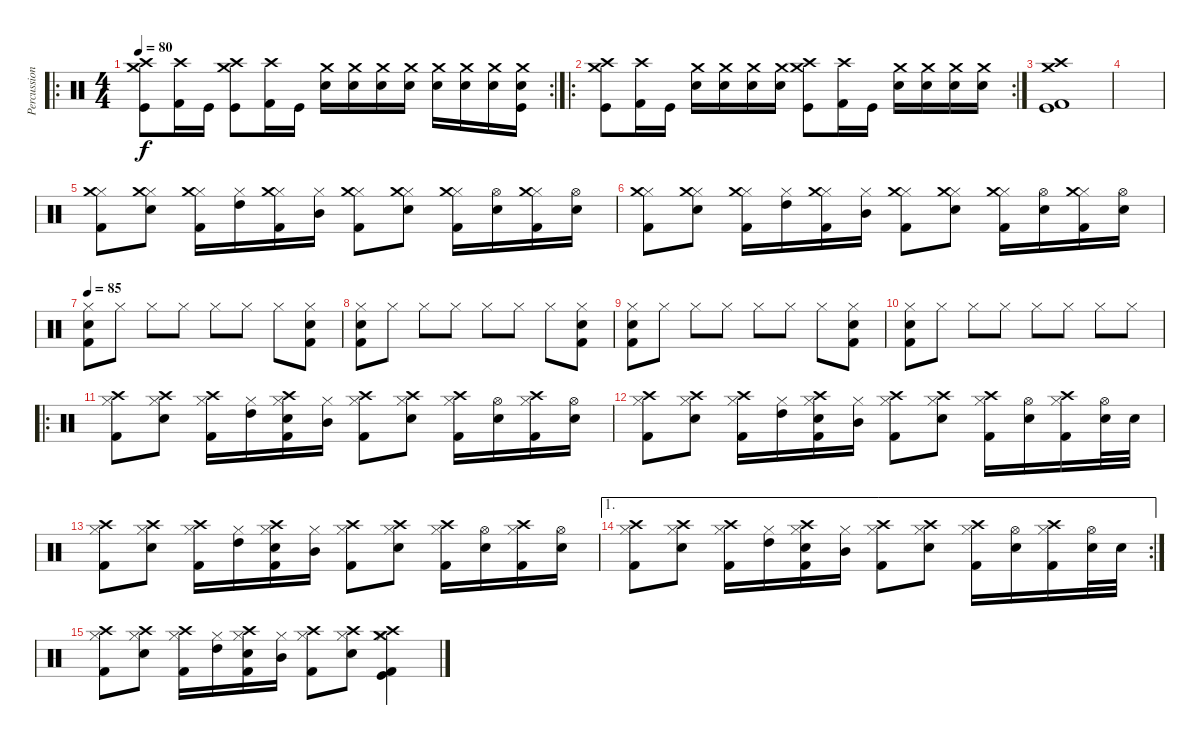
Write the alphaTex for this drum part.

\track ("Percussions" "Percussion") {instrument percussion}
\staff {score}
\articulation defaults
\ro
\rc 2
\ts (4 4)
\tempo 80
\clef neutral
\ks c
("Crash high (hit)" "Crash medium (hit)" "Kick (hit)").8{dy f} ("Crash high (hit)" "Kick (hit) 2").16 "Kick (hit)".16 ("Crash high (hit)" "Crash medium (hit)" "Kick (hit)").8 ("Crash high (hit)" "Kick (hit) 2").16 "Kick (hit)".16 ("Crash medium (hit)" "Electric Snare (hit)").16 ("Crash medium (hit)" "Electric Snare (hit)").16 ("Crash medium (hit)" "Electric Snare (hit)").16 ("Crash medium (hit)" "Electric Snare (hit)").16 ("Crash medium (hit)" "Electric Snare (hit)").16 ("Crash medium (hit)" "Electric Snare (hit)").16 ("Crash medium (hit)" "Electric Snare (hit)").16 ("Crash medium (hit)" "Electric Snare (hit)" "Kick (hit)").16 |
\ro
\rc 2
("Crash high (hit)" "Crash medium (hit)" "Kick (hit)").8 ("Crash high (hit)" "Kick (hit) 2").16 "Kick (hit)".16 ("Crash medium (hit)" "Electric Snare (hit)").16 ("Crash medium (hit)" "Electric Snare (hit)").16 ("Crash medium (hit)" "Electric Snare (hit)").16 ("Crash medium (hit)" "Electric Snare (hit)").16 ("Crash high (hit)" "Crash medium (hit)" "Kick (hit)").8 ("Crash high (hit)" "Kick (hit) 2").16 "Kick (hit)".16 ("Crash medium (hit)" "Electric Snare (hit)").16 ("Crash medium (hit)" "Electric Snare (hit)").16 ("Crash medium (hit)" "Electric Snare (hit)").16 ("Crash medium (hit)" "Electric Snare (hit)").16 |
("Crash high (hit)" "Crash medium (hit)" "Kick (hit) 2" "Kick (hit)").1 |
|
("Hi-Hat (closed)" "Kick (hit) 2" "Crash medium (hit)").8 ("Hi-Hat (closed)" "Electric Snare (hit)" "Crash medium (hit)").8 ("Hi-Hat (closed)" "Kick (hit) 2" "Crash medium (hit)").16 ("Hi-Hat (closed)" "High Tom (hit)").16 ("Hi-Hat (closed)" "Kick (hit) 2" "Crash medium (hit)").16 ("Hi-Hat (closed)" "Mid Tom (hit)").16 ("Hi-Hat (closed)" "Kick (hit) 2" "Crash medium (hit)").8 ("Hi-Hat (closed)" "Electric Snare (hit)" "Crash medium (hit)").8 ("Hi-Hat (closed)" "Kick (hit) 2" "Crash medium (hit)").16 ("Hi-Hat (open)" "Electric Snare (hit)").16 ("Hi-Hat (closed)" "Kick (hit) 2" "Crash medium (hit)").16 ("Hi-Hat (open)" "Electric Snare (hit)").16 |
("Hi-Hat (closed)" "Kick (hit) 2" "Crash medium (hit)").8 ("Hi-Hat (closed)" "Electric Snare (hit)" "Crash medium (hit)").8 ("Hi-Hat (closed)" "Kick (hit) 2" "Crash medium (hit)").16 ("Hi-Hat (closed)" "High Tom (hit)").16 ("Hi-Hat (closed)" "Kick (hit) 2" "Crash medium (hit)").16 ("Hi-Hat (closed)" "Mid Tom (hit)").16 ("Hi-Hat (closed)" "Kick (hit) 2" "Crash medium (hit)").8 ("Hi-Hat (closed)" "Electric Snare (hit)" "Crash medium (hit)").8 ("Hi-Hat (closed)" "Kick (hit) 2" "Crash medium (hit)").16 ("Hi-Hat (open)" "Electric Snare (hit)").16 ("Hi-Hat (closed)" "Kick (hit) 2" "Crash medium (hit)").16 ("Hi-Hat (open)" "Electric Snare (hit)").16 |
\tempo 85
("Hi-Hat (closed)" "Electric Snare (hit)" "Kick (hit) 2").8 "Hi-Hat (closed)".8 "Hi-Hat (closed)".8 "Hi-Hat (closed)".8 "Hi-Hat (closed)".8 "Hi-Hat (closed)".8 "Hi-Hat (closed)".8 ("Hi-Hat (closed)" "Electric Snare (hit)" "Kick (hit) 2").8 |
("Hi-Hat (closed)" "Electric Snare (hit)" "Kick (hit) 2").8 "Hi-Hat (closed)".8 "Hi-Hat (closed)".8 "Hi-Hat (closed)".8 "Hi-Hat (closed)".8 "Hi-Hat (closed)".8 "Hi-Hat (closed)".8 ("Hi-Hat (closed)" "Electric Snare (hit)" "Kick (hit) 2").8 |
("Hi-Hat (closed)" "Electric Snare (hit)" "Kick (hit) 2").8 "Hi-Hat (closed)".8 "Hi-Hat (closed)".8 "Hi-Hat (closed)".8 "Hi-Hat (closed)".8 "Hi-Hat (closed)".8 "Hi-Hat (closed)".8 ("Hi-Hat (closed)" "Electric Snare (hit)" "Kick (hit) 2").8 |
("Hi-Hat (closed)" "Electric Snare (hit)" "Kick (hit) 2").8 "Hi-Hat (closed)".8 "Hi-Hat (closed)".8 "Hi-Hat (closed)".8 "Hi-Hat (closed)".8 "Hi-Hat (closed)".8 "Hi-Hat (closed)".8 "Hi-Hat (closed)".8 |
\ro
("Hi-Hat (closed)" "Kick (hit) 2" "Crash high (hit)").8 ("Hi-Hat (closed)" "Electric Snare (hit)" "Crash high (hit)").8 ("Hi-Hat (closed)" "Kick (hit) 2" "Crash high (hit)").16 ("Hi-Hat (closed)" "High Tom (hit)").16 ("Hi-Hat (closed)" "Electric Snare (hit)" "Kick (hit) 2" "Crash high (hit)").16 ("Hi-Hat (closed)" "Mid Tom (hit)").16 ("Hi-Hat (closed)" "Kick (hit) 2" "Crash high (hit)").8 ("Hi-Hat (closed)" "Electric Snare (hit)" "Crash high (hit)").8 ("Hi-Hat (closed)" "Kick (hit) 2" "Crash high (hit)").16 ("Hi-Hat (open)" "Electric Snare (hit)").16 ("Hi-Hat (closed)" "Kick (hit) 2" "Crash high (hit)").16 ("Hi-Hat (open)" "Electric Snare (hit)").16 |
("Hi-Hat (closed)" "Kick (hit) 2" "Crash high (hit)").8 ("Hi-Hat (closed)" "Electric Snare (hit)" "Crash high (hit)").8 ("Hi-Hat (closed)" "Kick (hit) 2" "Crash high (hit)").16 ("Hi-Hat (closed)" "High Tom (hit)").16 ("Hi-Hat (closed)" "Electric Snare (hit)" "Kick (hit) 2" "Crash high (hit)").16 ("Hi-Hat (closed)" "Mid Tom (hit)").16 ("Hi-Hat (closed)" "Kick (hit) 2" "Crash high (hit)").8 ("Hi-Hat (closed)" "Electric Snare (hit)" "Crash high (hit)").8 ("Hi-Hat (closed)" "Kick (hit) 2" "Crash high (hit)").16 ("Hi-Hat (open)" "Electric Snare (hit)").16 ("Hi-Hat (closed)" "Kick (hit) 2" "Crash high (hit)").16 ("Hi-Hat (open)" "Electric Snare (hit)").32 "Electric Snare (hit)".32 |
("Hi-Hat (closed)" "Kick (hit) 2" "Crash high (hit)").8 ("Hi-Hat (closed)" "Electric Snare (hit)" "Crash high (hit)").8 ("Hi-Hat (closed)" "Kick (hit) 2" "Crash high (hit)").16 ("Hi-Hat (closed)" "High Tom (hit)").16 ("Hi-Hat (closed)" "Electric Snare (hit)" "Kick (hit) 2" "Crash high (hit)").16 ("Hi-Hat (closed)" "Mid Tom (hit)").16 ("Hi-Hat (closed)" "Kick (hit) 2" "Crash high (hit)").8 ("Hi-Hat (closed)" "Electric Snare (hit)" "Crash high (hit)").8 ("Hi-Hat (closed)" "Kick (hit) 2" "Crash high (hit)").16 ("Hi-Hat (open)" "Electric Snare (hit)").16 ("Hi-Hat (closed)" "Kick (hit) 2" "Crash high (hit)").16 ("Hi-Hat (open)" "Electric Snare (hit)").16 |
\ae 1
\rc 2
("Hi-Hat (closed)" "Kick (hit) 2" "Crash high (hit)").8 ("Hi-Hat (closed)" "Electric Snare (hit)" "Crash high (hit)").8 ("Hi-Hat (closed)" "Kick (hit) 2" "Crash high (hit)").16 ("Hi-Hat (closed)" "High Tom (hit)").16 ("Hi-Hat (closed)" "Electric Snare (hit)" "Kick (hit) 2" "Crash high (hit)").16 ("Hi-Hat (closed)" "Mid Tom (hit)").16 ("Hi-Hat (closed)" "Kick (hit) 2" "Crash high (hit)").8 ("Hi-Hat (closed)" "Electric Snare (hit)" "Crash high (hit)").8 ("Hi-Hat (closed)" "Kick (hit) 2" "Crash high (hit)").16 ("Hi-Hat (open)" "Electric Snare (hit)").16 ("Hi-Hat (closed)" "Kick (hit) 2" "Crash high (hit)").16 ("Hi-Hat (open)" "Electric Snare (hit)").32 "Electric Snare (hit)".32 |
("Hi-Hat (closed)" "Kick (hit) 2" "Crash high (hit)").8 ("Hi-Hat (closed)" "Electric Snare (hit)" "Crash high (hit)").8 ("Hi-Hat (closed)" "Kick (hit) 2" "Crash high (hit)").16 ("Hi-Hat (closed)" "High Tom (hit)").16 ("Hi-Hat (closed)" "Electric Snare (hit)" "Kick (hit) 2" "Crash high (hit)").16 ("Hi-Hat (closed)" "Mid Tom (hit)").16 ("Hi-Hat (closed)" "Kick (hit) 2" "Crash high (hit)").8 ("Hi-Hat (closed)" "Electric Snare (hit)" "Crash high (hit)").8 ("Hi-Hat (closed)" "Crash medium (hit)" "Kick (hit)" "Kick (hit) 2" "Crash high (hit)").4
